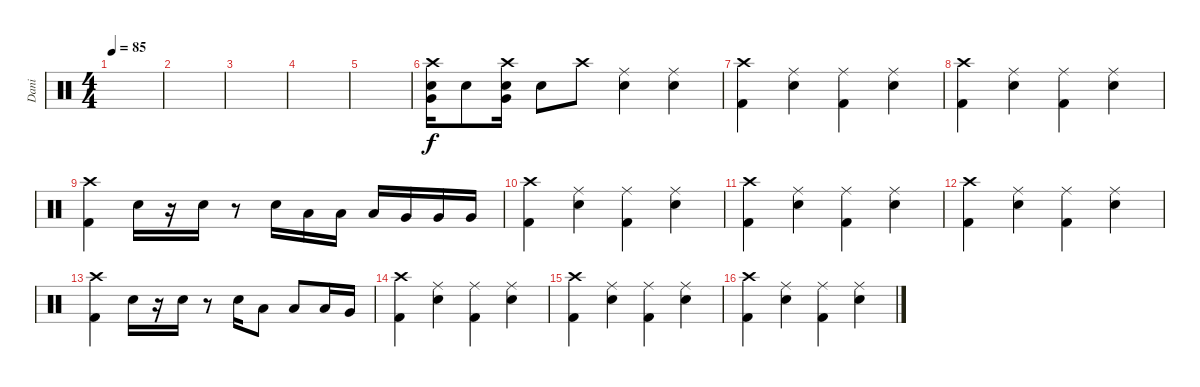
\track ("Dani" "Dani") {instrument percussion}
\staff {score}
\articulation defaults
\ts (4 4)
\tempo 85
\clef neutral
\ks c
|
|
|
|
|
("Snare (hit) 2" "Very Low Tom (hit)" "Crash high (hit)").16 "Snare (hit) 2".8 ("Snare (hit) 2" "Very Low Tom (hit)" "Crash high (hit)").16 "Snare (hit) 2".8 "Crash high (hit)".8 ("Snare (hit) 2" "Ride (middle)").4 ("Snare (hit) 2" "Ride (middle)").4 |
("Kick (hit) 2" "Crash high (hit)").4 ("Snare (hit) 2" "Ride (middle)").4 ("Kick (hit) 2" "Ride (middle)").4 ("Snare (hit) 2" "Ride (middle)").4 |
("Kick (hit) 2" "Crash high (hit)").4 ("Snare (hit) 2" "Ride (middle)").4 ("Kick (hit) 2" "Ride (middle)").4 ("Snare (hit) 2" "Ride (middle)").4 |
("Kick (hit) 2" "Crash high (hit)").4 "Snare (hit) 2".16 r.16 "Snare (hit) 2".16 r.8 "Snare (hit) 2".16 "Low Tom (hit)".16 "Low Tom (hit)".16 "Low Tom (hit)".16 "Very Low Tom (hit)".16 "Very Low Tom (hit)".16 "Very Low Tom (hit)".16 |
("Kick (hit) 2" "Crash high (hit)").4 ("Snare (hit) 2" "Ride (middle)").4 ("Kick (hit) 2" "Ride (middle)").4 ("Snare (hit) 2" "Ride (middle)").4 |
("Kick (hit) 2" "Crash high (hit)").4 ("Snare (hit) 2" "Ride (middle)").4 ("Kick (hit) 2" "Ride (middle)").4 ("Snare (hit) 2" "Ride (middle)").4 |
("Kick (hit) 2" "Crash high (hit)").4 ("Snare (hit) 2" "Ride (middle)").4 ("Kick (hit) 2" "Ride (middle)").4 ("Snare (hit) 2" "Ride (middle)").4 |
("Kick (hit) 2" "Crash high (hit)").4 "Snare (hit) 2".16 r.16 "Snare (hit) 2".16 r.8 "Snare (hit) 2".16 "Low Tom (hit)".8 "Low Tom (hit)".8 "Low Tom (hit)".16 "Very Low Tom (hit)".16 |
("Kick (hit) 2" "Crash high (hit)").4 ("Snare (hit) 2" "Ride (middle)").4 ("Kick (hit) 2" "Ride (middle)").4 ("Snare (hit) 2" "Ride (middle)").4 |
("Kick (hit) 2" "Crash high (hit)").4 ("Snare (hit) 2" "Ride (middle)").4 ("Kick (hit) 2" "Ride (middle)").4 ("Snare (hit) 2" "Ride (middle)").4 |
("Kick (hit) 2" "Crash high (hit)").4 ("Snare (hit) 2" "Ride (middle)").4 ("Kick (hit) 2" "Ride (middle)").4 ("Snare (hit) 2" "Ride (middle)").4
